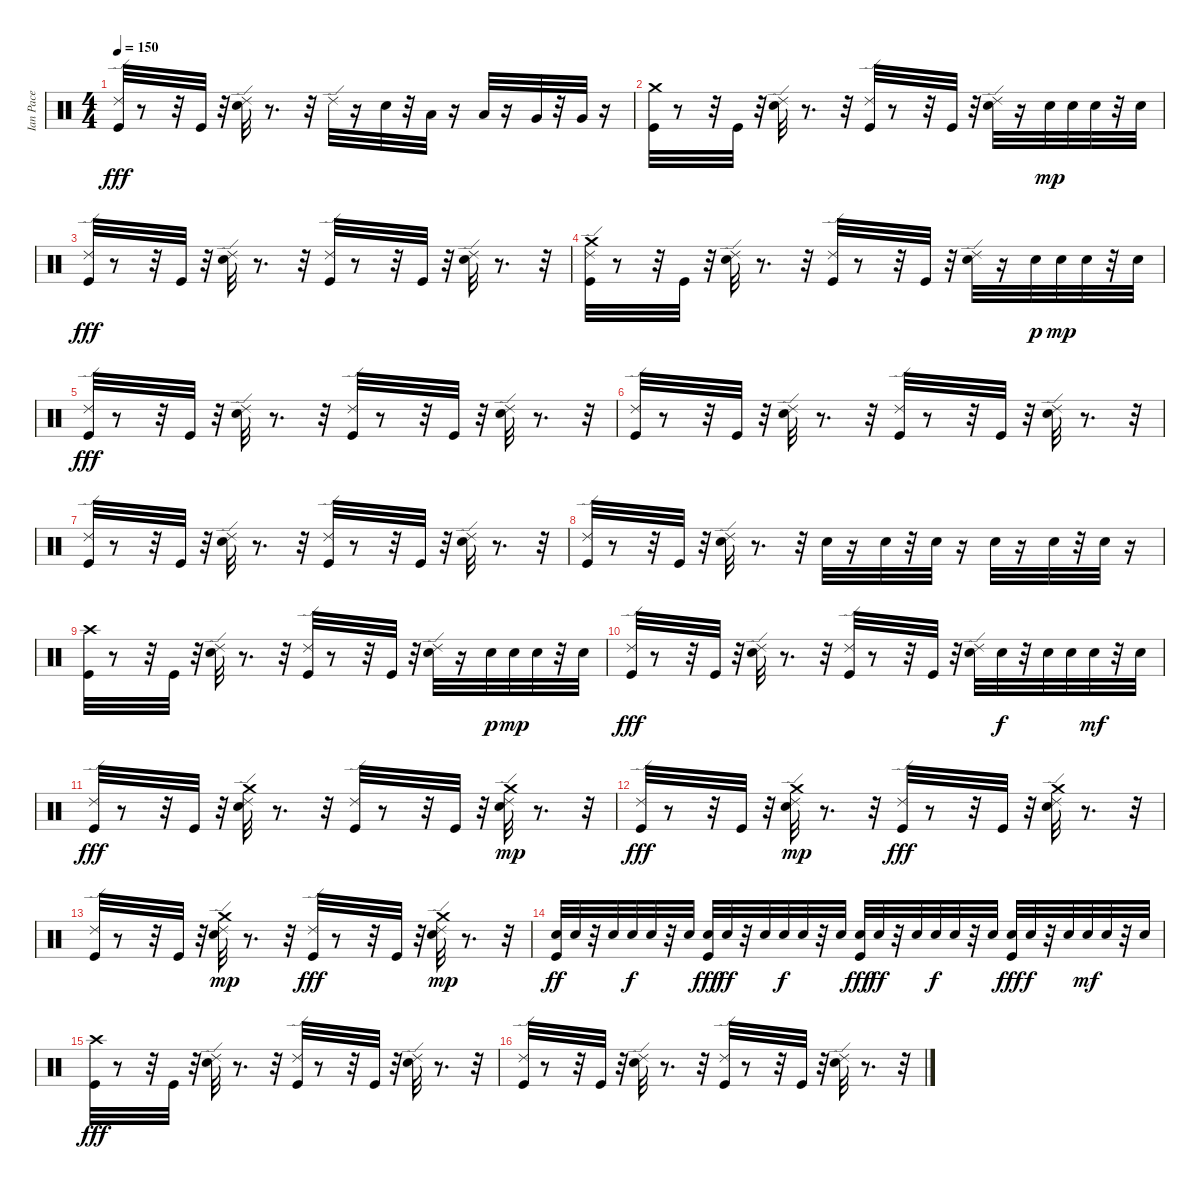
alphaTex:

\track ("Ian Pace" "Ian Pace") {instrument percussion}
\staff {score}
\articulation defaults
\ts (4 4)
\tempo 150
\clef neutral
\ks c
("Ride (edge) 2" "Kick (hit)").32{dy fff} r.8 r.32 "Kick (hit)".32 r.32 ("Ride (edge) 2" "Electric Snare (hit)").32 r.8{d} r.32 "Ride (edge) 2".32 r.16 "Electric Snare (hit)".32 r.32 "Low Tom (hit)".32 r.16 "Low Tom (hit)".32 r.16 "Very Low Tom (hit)".32 r.32 "Very Low Tom (hit)".32 r.16 |
("Kick (hit)" "Crash medium (hit)").32 r.8 r.32 "Kick (hit)".32 r.32 ("Ride (edge) 2" "Electric Snare (hit)").32 r.8{d} r.32 ("Ride (edge) 2" "Kick (hit)").32 r.8 r.32 "Kick (hit)".32 r.32 ("Ride (edge) 2" "Electric Snare (hit)").32 r.16 "Electric Snare (hit)".32{dy mp} "Electric Snare (hit)".32 "Electric Snare (hit)".32 r.32 "Electric Snare (hit)".32 |
("Ride (edge) 2" "Kick (hit)").32{dy fff} r.8 r.32 "Kick (hit)".32 r.32 ("Electric Snare (hit)" "Ride (edge) 2").32 r.8{d} r.32 ("Kick (hit)" "Ride (edge) 2").32 r.8 r.32 "Kick (hit)".32 r.32 ("Electric Snare (hit)" "Ride (edge) 2").32 r.8{d} r.32 |
("Crash medium (hit)" "Kick (hit)" "Ride (edge) 2").32 r.8 r.32 "Kick (hit)".32 r.32 ("Ride (edge) 2" "Electric Snare (hit)").32 r.8{d} r.32 ("Kick (hit)" "Ride (edge) 2").32 r.8 r.32 "Kick (hit)".32 r.32 ("Electric Snare (hit)" "Ride (edge) 2").32 r.16 "Electric Snare (hit)".32{dy p} "Electric Snare (hit)".32{dy mp} "Electric Snare (hit)".32 r.32 "Electric Snare (hit)".32 |
("Ride (edge) 2" "Kick (hit)").32{dy fff} r.8 r.32 "Kick (hit)".32 r.32 ("Ride (edge) 2" "Electric Snare (hit)").32 r.8{d} r.32 ("Kick (hit)" "Ride (edge) 2").32 r.8 r.32 "Kick (hit)".32 r.32 ("Electric Snare (hit)" "Ride (edge) 2").32 r.8{d} r.32 |
("Ride (edge) 2" "Kick (hit)").32 r.8 r.32 "Kick (hit)".32 r.32 ("Ride (edge) 2" "Electric Snare (hit)").32 r.8{d} r.32 ("Ride (edge) 2" "Kick (hit)").32 r.8 r.32 "Kick (hit)".32 r.32 ("Electric Snare (hit)" "Ride (edge) 2").32 r.8{d} r.32 |
("Ride (edge) 2" "Kick (hit)").32 r.8 r.32 "Kick (hit)".32 r.32 ("Ride (edge) 2" "Electric Snare (hit)").32 r.8{d} r.32 ("Kick (hit)" "Ride (edge) 2").32 r.8 r.32 "Kick (hit)".32 r.32 ("Ride (edge) 2" "Electric Snare (hit)").32 r.8{d} r.32 |
("Kick (hit)" "Ride (edge) 2").32 r.8 r.32 "Kick (hit)".32 r.32 ("Electric Snare (hit)" "Ride (edge) 2").32 r.8{d} r.32 "Electric Snare (hit)".32 r.16 "Electric Snare (hit)".32 r.32 "Electric Snare (hit)".32 r.16 "Electric Snare (hit)".32 r.16 "Electric Snare (hit)".32 r.32 "Electric Snare (hit)".32 r.16 |
("Crash high (hit)" "Kick (hit)").32 r.8 r.32 "Kick (hit)".32 r.32 ("Ride (edge) 2" "Electric Snare (hit)").32 r.8{d} r.32 ("Ride (edge) 2" "Kick (hit)").32 r.8 r.32 "Kick (hit)".32 r.32 ("Ride (edge) 2" "Electric Snare (hit)").32 r.16 "Electric Snare (hit)".32{dy p} "Electric Snare (hit)".32{dy mp} "Electric Snare (hit)".32 r.32 "Electric Snare (hit)".32 |
("Ride (edge) 2" "Kick (hit)").32{dy fff} r.8 r.32 "Kick (hit)".32 r.32 ("Electric Snare (hit)" "Ride (edge) 2").32 r.8{d} r.32 ("Ride (edge) 2" "Kick (hit)").32 r.8 r.32 "Kick (hit)".32 r.32 ("Ride (edge) 2" "Electric Snare (hit)").32 "Electric Snare (hit)".32{dy f} r.32 "Electric Snare (hit)".32 "Electric Snare (hit)".32 "Electric Snare (hit)".32{dy mf} r.32 "Electric Snare (hit)".32 |
("Ride (edge) 2" "Kick (hit)").32{dy fff} r.8 r.32 "Kick (hit)".32 r.32 ("Crash medium (hit)" "Ride (edge) 2" "Electric Snare (hit)").32 r.8{d} r.32 ("Ride (edge) 2" "Kick (hit)").32 r.8 r.32 "Kick (hit)".32 r.32 ("Ride (edge) 2" "Electric Snare (hit)" "Crash medium (hit)").32{dy mp} r.8{d} r.32 |
("Kick (hit)" "Ride (edge) 2").32{dy fff} r.8 r.32 "Kick (hit)".32 r.32 ("Electric Snare (hit)" "Ride (edge) 2" "Crash medium (hit)").32{dy mp} r.8{d} r.32 ("Ride (edge) 2" "Kick (hit)").32{dy fff} r.8 r.32 "Kick (hit)".32 r.32 ("Crash medium (hit)" "Electric Snare (hit)" "Ride (edge) 2").32 r.8{d} r.32 |
("Kick (hit)" "Ride (edge) 2").32 r.8 r.32 "Kick (hit)".32 r.32 ("Ride (edge) 2" "Electric Snare (hit)" "Crash medium (hit)").32{dy mp} r.8{d} r.32 ("Ride (edge) 2" "Kick (hit)").32{dy fff} r.8 r.32 "Kick (hit)".32 r.32 ("Ride (edge) 2" "Electric Snare (hit)" "Crash medium (hit)").32{dy mp} r.8{d} r.32 |
("Kick (hit)" "Electric Snare (hit)").32{dy ff} "Electric Snare (hit)".32 r.32 "Electric Snare (hit)".32 "Electric Snare (hit)".32{dy f} "Electric Snare (hit)".32 r.32 "Electric Snare (hit)".32 ("Electric Snare (hit)" "Kick (hit)").32{dy fff} "Electric Snare (hit)".32{dy ff} r.32 "Electric Snare (hit)".32 "Electric Snare (hit)".32{dy f} "Electric Snare (hit)".32 r.32 "Electric Snare (hit)".32 ("Electric Snare (hit)" "Kick (hit)").32{dy fff} "Electric Snare (hit)".32{dy ff} r.32 "Electric Snare (hit)".32 "Electric Snare (hit)".32{dy f} "Electric Snare (hit)".32 r.32 "Electric Snare (hit)".32 ("Electric Snare (hit)" "Kick (hit)").32{dy fff} "Electric Snare (hit)".32{dy f} r.32 "Electric Snare (hit)".32 "Electric Snare (hit)".32{dy mf} "Electric Snare (hit)".32 r.32 "Electric Snare (hit)".32 |
("Crash high (hit)" "Kick (hit)").32{dy fff} r.8 r.32 "Kick (hit)".32 r.32 ("Ride (edge) 2" "Electric Snare (hit)").32 r.8{d} r.32 ("Kick (hit)" "Ride (edge) 2").32 r.8 r.32 "Kick (hit)".32 r.32 ("Ride (edge) 2" "Electric Snare (hit)").32 r.8{d} r.32 |
("Ride (edge) 2" "Kick (hit)").32 r.8 r.32 "Kick (hit)".32 r.32 ("Ride (edge) 2" "Electric Snare (hit)").32 r.8{d} r.32 ("Kick (hit)" "Ride (edge) 2").32 r.8 r.32 "Kick (hit)".32 r.32 ("Ride (edge) 2" "Electric Snare (hit)").32 r.8{d} r.32
